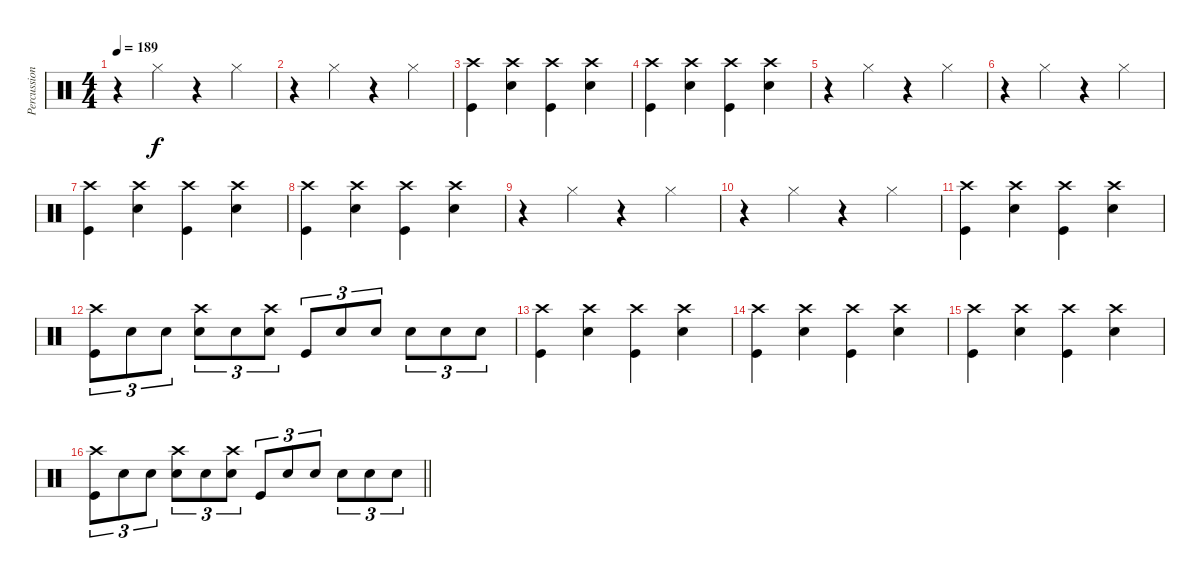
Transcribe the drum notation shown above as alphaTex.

\track ("Percussions" "Percussion") {instrument percussion}
\staff {score}
\articulation defaults
\ts (4 4)
\tempo 189
\clef neutral
\ks c
r.4{dy f} "Hi-Hat (closed)".4 r.4 "Hi-Hat (closed)".4 |
r.4 "Hi-Hat (closed)".4 r.4 "Hi-Hat (closed)".4 |
("Crash high (hit)" "Kick (hit)").4 ("Crash high (hit)" "Snare (hit) 2").4 ("Crash high (hit)" "Kick (hit)").4 ("Crash high (hit)" "Snare (hit) 2").4 |
("Crash high (hit)" "Kick (hit)").4 ("Crash high (hit)" "Snare (hit) 2").4 ("Crash high (hit)" "Kick (hit)").4 ("Crash high (hit)" "Snare (hit) 2").4 |
r.4 "Hi-Hat (closed)".4 r.4 "Hi-Hat (closed)".4 |
r.4 "Hi-Hat (closed)".4 r.4 "Hi-Hat (closed)".4 |
("Crash high (hit)" "Kick (hit)").4 ("Crash high (hit)" "Snare (hit) 2").4 ("Crash high (hit)" "Kick (hit)").4 ("Crash high (hit)" "Snare (hit) 2").4 |
("Crash high (hit)" "Kick (hit)").4 ("Crash high (hit)" "Snare (hit) 2").4 ("Crash high (hit)" "Kick (hit)").4 ("Crash high (hit)" "Snare (hit) 2").4 |
r.4 "Hi-Hat (closed)".4 r.4 "Hi-Hat (closed)".4 |
r.4 "Hi-Hat (closed)".4 r.4 "Hi-Hat (closed)".4 |
("Crash high (hit)" "Kick (hit)").4 ("Crash high (hit)" "Snare (hit) 2").4 ("Crash high (hit)" "Kick (hit)").4 ("Crash high (hit)" "Snare (hit) 2").4 |
("Crash high (hit)" "Kick (hit)").8{tu (3 2)} "Snare (hit) 2".8{tu (3 2)} "Snare (hit) 2".8{tu (3 2)} ("Crash high (hit)" "Snare (hit) 2").8{tu (3 2)} "Snare (hit) 2".8{tu (3 2)} ("Crash high (hit)" "Snare (hit) 2").8{tu (3 2)} "Kick (hit)".8{tu (3 2)} "Snare (hit) 2".8{tu (3 2)} "Snare (hit) 2".8{tu (3 2)} "Snare (hit) 2".8{tu (3 2)} "Snare (hit) 2".8{tu (3 2)} "Snare (hit) 2".8{tu (3 2)} |
("Crash high (hit)" "Kick (hit)").4 ("Crash high (hit)" "Snare (hit) 2").4 ("Crash high (hit)" "Kick (hit)").4 ("Crash high (hit)" "Snare (hit) 2").4 |
("Crash high (hit)" "Kick (hit)").4 ("Crash high (hit)" "Snare (hit) 2").4 ("Crash high (hit)" "Kick (hit)").4 ("Crash high (hit)" "Snare (hit) 2").4 |
("Crash high (hit)" "Kick (hit)").4 ("Crash high (hit)" "Snare (hit) 2").4 ("Crash high (hit)" "Kick (hit)").4 ("Crash high (hit)" "Snare (hit) 2").4 |
\barLineRight lightlight
("Crash high (hit)" "Kick (hit)").8{tu (3 2)} "Snare (hit) 2".8{tu (3 2)} "Snare (hit) 2".8{tu (3 2)} ("Crash high (hit)" "Snare (hit) 2").8{tu (3 2)} "Snare (hit) 2".8{tu (3 2)} ("Crash high (hit)" "Snare (hit) 2").8{tu (3 2)} "Kick (hit)".8{tu (3 2)} "Snare (hit) 2".8{tu (3 2)} "Snare (hit) 2".8{tu (3 2)} "Snare (hit) 2".8{tu (3 2)} "Snare (hit) 2".8{tu (3 2)} "Snare (hit) 2".8{tu (3 2)}
